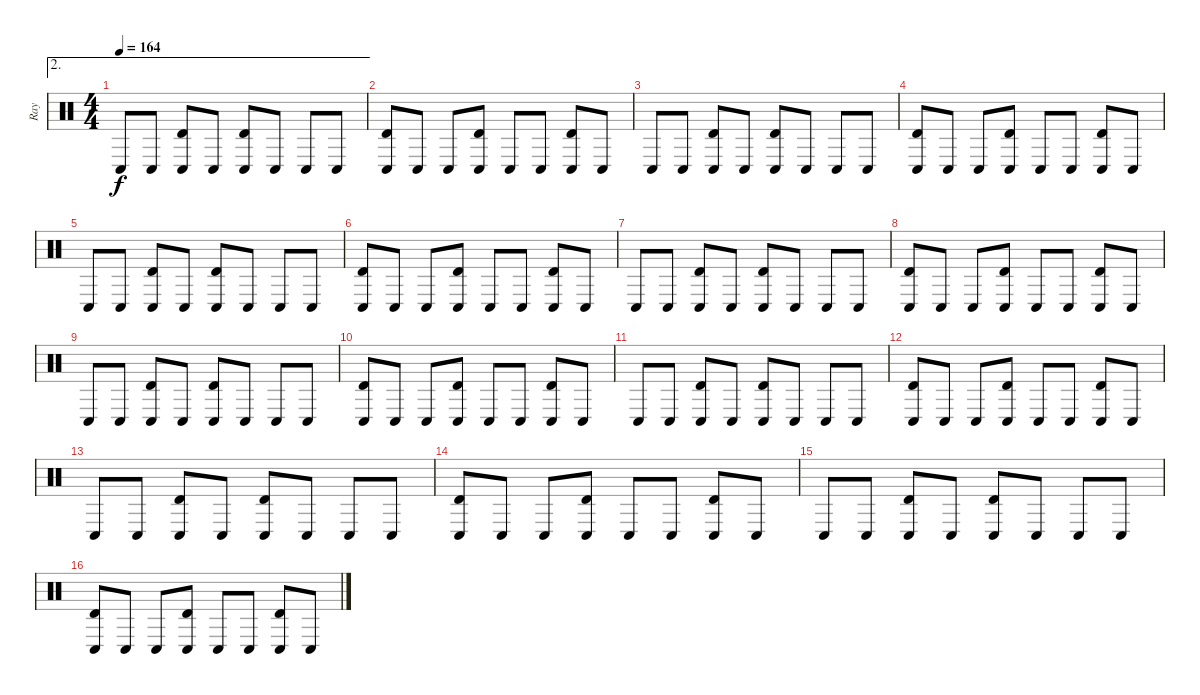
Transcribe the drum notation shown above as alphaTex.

\track ("Ray" "Ray") {instrument percussion}
\staff {score}
\articulation defaults
\ae 2
\ts (4 4)
\tempo 164
\clef neutral
\ks c "Conga low (hit)".8{dy f} "Conga low (hit)".8
("Timbale high (hit)" "Conga low (hit)").8 "Conga low (hit)".8 ("Timbale high (hit)" "Conga low (hit)").8 "Conga low (hit)".8 "Conga low (hit)".8 "Conga low (hit)".8 |
("Timbale high (hit)" "Conga low (hit)").8 "Conga low (hit)".8 "Conga low (hit)".8 ("Timbale high (hit)" "Conga low (hit)").8 "Conga low (hit)".8 "Conga low (hit)".8 ("Timbale high (hit)" "Conga low (hit)").8 "Conga low (hit)".8 |
"Conga low (hit)".8 "Conga low (hit)".8 ("Timbale high (hit)" "Conga low (hit)").8 "Conga low (hit)".8 ("Timbale high (hit)" "Conga low (hit)").8 "Conga low (hit)".8 "Conga low (hit)".8 "Conga low (hit)".8 |
("Timbale high (hit)" "Conga low (hit)").8 "Conga low (hit)".8 "Conga low (hit)".8 ("Timbale high (hit)" "Conga low (hit)").8 "Conga low (hit)".8 "Conga low (hit)".8 ("Timbale high (hit)" "Conga low (hit)").8 "Conga low (hit)".8 |
"Conga low (hit)".8 "Conga low (hit)".8 ("Timbale high (hit)" "Conga low (hit)").8 "Conga low (hit)".8 ("Timbale high (hit)" "Conga low (hit)").8 "Conga low (hit)".8 "Conga low (hit)".8 "Conga low (hit)".8 |
("Timbale high (hit)" "Conga low (hit)").8 "Conga low (hit)".8 "Conga low (hit)".8 ("Timbale high (hit)" "Conga low (hit)").8 "Conga low (hit)".8 "Conga low (hit)".8 ("Timbale high (hit)" "Conga low (hit)").8 "Conga low (hit)".8 |
"Conga low (hit)".8 "Conga low (hit)".8 ("Timbale high (hit)" "Conga low (hit)").8 "Conga low (hit)".8 ("Timbale high (hit)" "Conga low (hit)").8 "Conga low (hit)".8 "Conga low (hit)".8 "Conga low (hit)".8 |
("Timbale high (hit)" "Conga low (hit)").8 "Conga low (hit)".8 "Conga low (hit)".8 ("Timbale high (hit)" "Conga low (hit)").8 "Conga low (hit)".8 "Conga low (hit)".8 ("Timbale high (hit)" "Conga low (hit)").8 "Conga low (hit)".8 |
"Conga low (hit)".8 "Conga low (hit)".8 ("Timbale high (hit)" "Conga low (hit)").8 "Conga low (hit)".8 ("Timbale high (hit)" "Conga low (hit)").8 "Conga low (hit)".8 "Conga low (hit)".8 "Conga low (hit)".8 |
("Timbale high (hit)" "Conga low (hit)").8 "Conga low (hit)".8 "Conga low (hit)".8 ("Timbale high (hit)" "Conga low (hit)").8 "Conga low (hit)".8 "Conga low (hit)".8 ("Timbale high (hit)" "Conga low (hit)").8 "Conga low (hit)".8 |
"Conga low (hit)".8 "Conga low (hit)".8 ("Timbale high (hit)" "Conga low (hit)").8 "Conga low (hit)".8 ("Timbale high (hit)" "Conga low (hit)").8 "Conga low (hit)".8 "Conga low (hit)".8 "Conga low (hit)".8 |
("Timbale high (hit)" "Conga low (hit)").8 "Conga low (hit)".8 "Conga low (hit)".8 ("Timbale high (hit)" "Conga low (hit)").8 "Conga low (hit)".8 "Conga low (hit)".8 ("Timbale high (hit)" "Conga low (hit)").8 "Conga low (hit)".8 |
"Conga low (hit)".8 "Conga low (hit)".8 ("Timbale high (hit)" "Conga low (hit)").8 "Conga low (hit)".8 ("Timbale high (hit)" "Conga low (hit)").8 "Conga low (hit)".8 "Conga low (hit)".8 "Conga low (hit)".8 |
("Timbale high (hit)" "Conga low (hit)").8 "Conga low (hit)".8 "Conga low (hit)".8 ("Timbale high (hit)" "Conga low (hit)").8 "Conga low (hit)".8 "Conga low (hit)".8 ("Timbale high (hit)" "Conga low (hit)").8 "Conga low (hit)".8 |
"Conga low (hit)".8 "Conga low (hit)".8 ("Timbale high (hit)" "Conga low (hit)").8 "Conga low (hit)".8 ("Timbale high (hit)" "Conga low (hit)").8 "Conga low (hit)".8 "Conga low (hit)".8 "Conga low (hit)".8 |
("Timbale high (hit)" "Conga low (hit)").8 "Conga low (hit)".8 "Conga low (hit)".8 ("Timbale high (hit)" "Conga low (hit)").8 "Conga low (hit)".8 "Conga low (hit)".8 ("Timbale high (hit)" "Conga low (hit)").8 "Conga low (hit)".8
